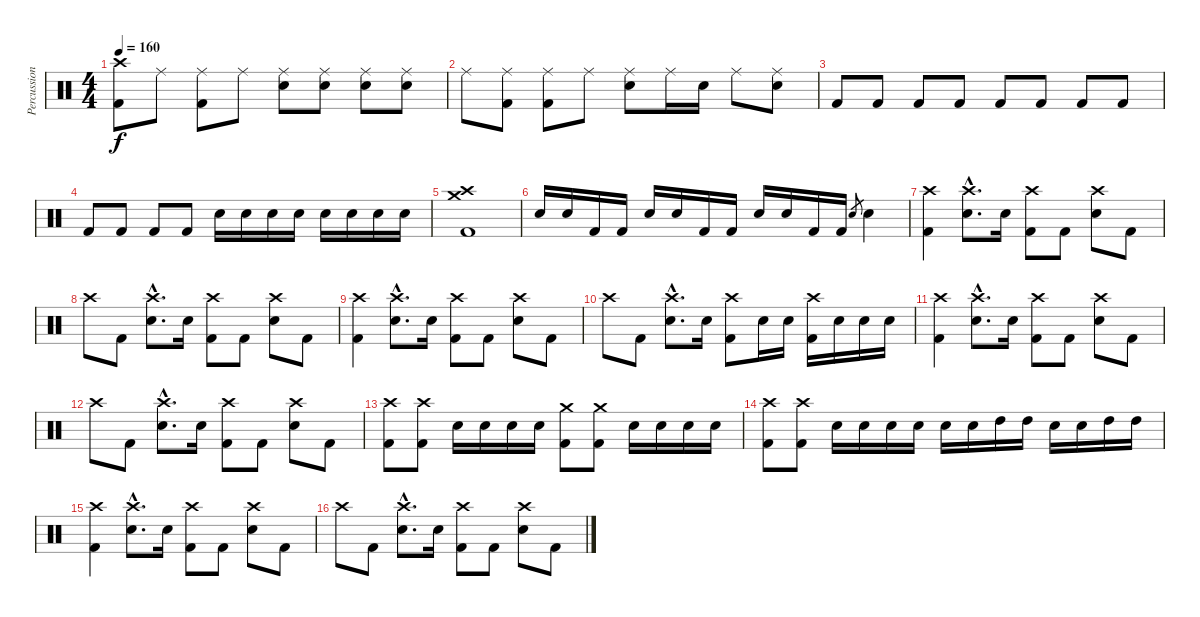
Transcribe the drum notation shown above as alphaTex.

\track ("Percussion" "Percussion") {instrument percussion}
\staff {score}
\articulation defaults
\ts (4 4)
\tempo 160
\clef neutral
\ks c
("Crash high (hit)" "Kick (hit) 2").8{dy f} "Ride (middle)".8 ("Ride (middle)" "Kick (hit) 2").8 "Ride (middle)".8 ("Ride (middle)" "Electric Snare (hit)").8 ("Ride (middle)" "Electric Snare (hit)").8 ("Ride (middle)" "Electric Snare (hit)").8 ("Ride (middle)" "Electric Snare (hit)").8 |
"Ride (middle)".8 ("Ride (middle)" "Kick (hit) 2").8 ("Ride (middle)" "Kick (hit) 2").8 "Ride (middle)".8 ("Ride (middle)" "Electric Snare (hit)").8 "Ride (middle)".16 "Electric Snare (hit)".16 "Ride (middle)".8 ("Ride (middle)" "Electric Snare (hit)").8 |
"Kick (hit) 2".8 "Kick (hit) 2".8 "Kick (hit) 2".8 "Kick (hit) 2".8 "Kick (hit) 2".8 "Kick (hit) 2".8 "Kick (hit) 2".8 "Kick (hit) 2".8 |
"Kick (hit) 2".8 "Kick (hit) 2".8 "Kick (hit) 2".8 "Kick (hit) 2".8 "Electric Snare (hit)".16 "Electric Snare (hit)".16 "Electric Snare (hit)".16 "Electric Snare (hit)".16 "Electric Snare (hit)".16 "Electric Snare (hit)".16 "Electric Snare (hit)".16 "Electric Snare (hit)".16 |
("Crash high (hit)" "Crash medium (hit)" "Kick (hit) 2").1 |
"Electric Snare (hit)".16 "Electric Snare (hit)".16 "Kick (hit) 2".16 "Kick (hit) 2".16 "Electric Snare (hit)".16 "Electric Snare (hit)".16 "Kick (hit) 2".16 "Kick (hit) 2".16 "Electric Snare (hit)".16 "Electric Snare (hit)".16 "Kick (hit) 2".16 "Kick (hit) 2".16 "Electric Snare (hit)".8{gr} "Electric Snare (hit)".4 |
("Crash high (hit)" "Kick (hit) 2").4 ("Crash high (hit)"{hac} "Electric Snare (hit)"{hac}).8{d} "Electric Snare (hit)".16 ("Crash high (hit)" "Kick (hit) 2").8 "Kick (hit) 2".8 ("Crash high (hit)" "Electric Snare (hit)").8 "Kick (hit) 2".8 |
"Crash high (hit)".8 "Kick (hit) 2".8 ("Crash high (hit)"{hac} "Electric Snare (hit)"{hac}).8{d} "Electric Snare (hit)".16 ("Crash high (hit)" "Kick (hit) 2").8 "Kick (hit) 2".8 ("Crash high (hit)" "Electric Snare (hit)").8 "Kick (hit) 2".8 |
("Crash high (hit)" "Kick (hit) 2").4 ("Crash high (hit)"{hac} "Electric Snare (hit)"{hac}).8{d} "Electric Snare (hit)".16 ("Crash high (hit)" "Kick (hit) 2").8 "Kick (hit) 2".8 ("Crash high (hit)" "Electric Snare (hit)").8 "Kick (hit) 2".8 |
"Crash high (hit)".8 "Kick (hit) 2".8 ("Crash high (hit)"{hac} "Electric Snare (hit)"{hac}).8{d} "Electric Snare (hit)".16 ("Crash high (hit)" "Kick (hit) 2").8 "Electric Snare (hit)".16 "Electric Snare (hit)".16 ("Crash high (hit)" "Kick (hit) 2").16 "Electric Snare (hit)".16 "Electric Snare (hit)".16 "Electric Snare (hit)".16 |
("Crash high (hit)" "Kick (hit) 2").4 ("Crash high (hit)"{hac} "Electric Snare (hit)"{hac}).8{d} "Electric Snare (hit)".16 ("Crash high (hit)" "Kick (hit) 2").8 "Kick (hit) 2".8 ("Crash high (hit)" "Electric Snare (hit)").8 "Kick (hit) 2".8 |
"Crash high (hit)".8 "Kick (hit) 2".8 ("Crash high (hit)"{hac} "Electric Snare (hit)"{hac}).8{d} "Electric Snare (hit)".16 ("Crash high (hit)" "Kick (hit) 2").8 "Kick (hit) 2".8 ("Crash high (hit)" "Electric Snare (hit)").8 "Kick (hit) 2".8 |
("Crash high (hit)" "Kick (hit) 2").8 ("Crash high (hit)" "Kick (hit) 2").8 "Electric Snare (hit)".16 "Electric Snare (hit)".16 "Electric Snare (hit)".16 "Electric Snare (hit)".16 ("Crash medium (hit)" "Kick (hit) 2").8 ("Crash medium (hit)" "Kick (hit) 2").8 "Electric Snare (hit)".16 "Electric Snare (hit)".16 "Electric Snare (hit)".16 "Electric Snare (hit)".16 |
("Crash high (hit)" "Kick (hit) 2").8 ("Crash high (hit)" "Kick (hit) 2").8 "Electric Snare (hit)".16 "Electric Snare (hit)".16 "Electric Snare (hit)".16 "Electric Snare (hit)".16 "Electric Snare (hit)".16 "Electric Snare (hit)".16 "High Tom (hit)".16 "High Tom (hit)".16 "Electric Snare (hit)".16 "Electric Snare (hit)".16 "High Tom (hit)".16 "High Tom (hit)".16 |
("Crash high (hit)" "Kick (hit) 2").4 ("Crash high (hit)"{hac} "Electric Snare (hit)"{hac}).8{d} "Electric Snare (hit)".16 ("Crash high (hit)" "Kick (hit) 2").8 "Kick (hit) 2".8 ("Crash high (hit)" "Electric Snare (hit)").8 "Kick (hit) 2".8 |
"Crash high (hit)".8 "Kick (hit) 2".8 ("Crash high (hit)"{hac} "Electric Snare (hit)"{hac}).8{d} "Electric Snare (hit)".16 ("Crash high (hit)" "Kick (hit) 2").8 "Kick (hit) 2".8 ("Crash high (hit)" "Electric Snare (hit)").8 "Kick (hit) 2".8
